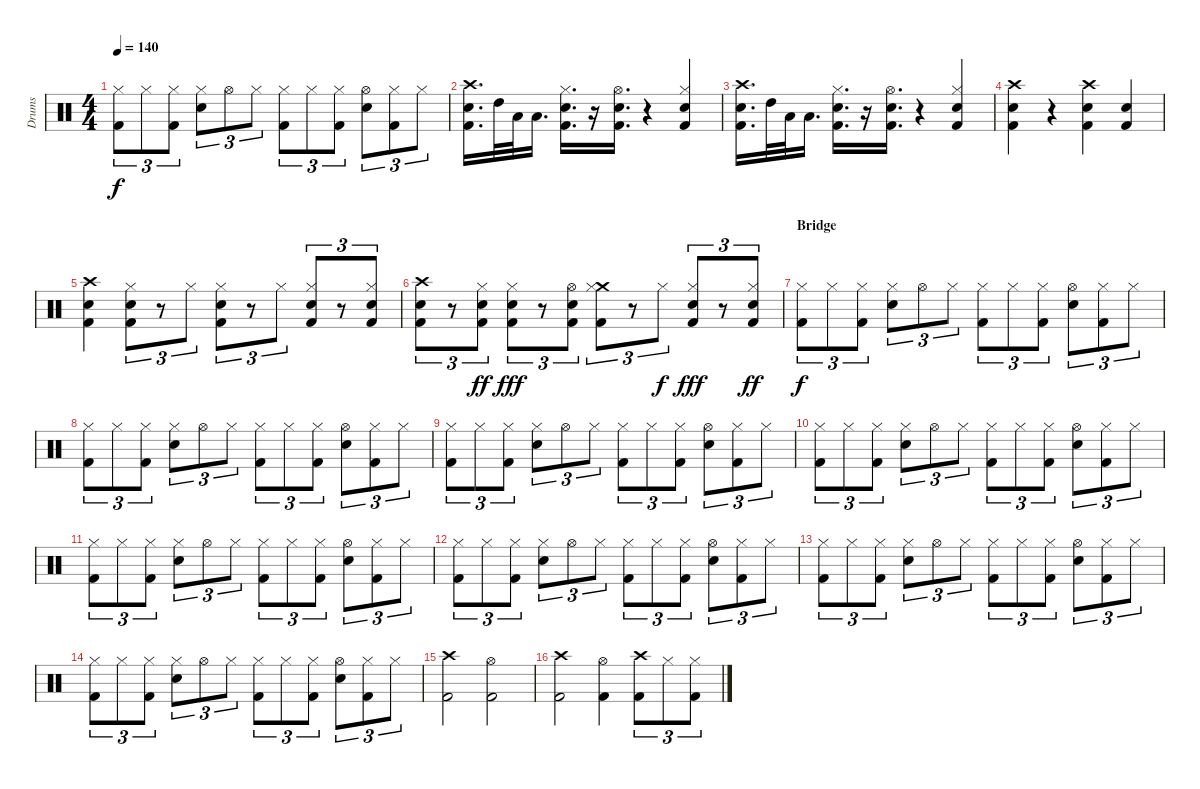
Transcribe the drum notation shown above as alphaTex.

\track ("Drums" "Drums") {instrument percussion}
\staff {score}
\articulation defaults
\ts (4 4)
\tempo 140
\clef neutral
\ks c
("Kick (hit) 2" "Hi-Hat (closed)").8{tu (3 2) dy f} "Hi-Hat (closed)".8{tu (3 2)} ("Kick (hit) 2" "Hi-Hat (closed)").8{tu (3 2)} ("Snare (hit) 2" "Hi-Hat (closed)").8{tu (3 2)} "Hi-Hat (open)".8{tu (3 2)} "Hi-Hat (closed)".8{tu (3 2)} ("Kick (hit) 2" "Hi-Hat (closed)").8{tu (3 2)} "Hi-Hat (closed)".8{tu (3 2)} ("Kick (hit) 2" "Hi-Hat (closed)").8{tu (3 2)} ("Snare (hit) 2" "Hi-Hat (open)").8{tu (3 2)} ("Kick (hit) 2" "Hi-Hat (closed)").8{tu (3 2)} "Hi-Hat (closed)".8{tu (3 2)} |
("Snare (hit) 2" "Crash high (hit)" "Kick (hit) 2").16{d} "High Tom (hit)".32 "Low Tom (hit)".32 "Low Floor Tom (hit)".16{d} ("Kick (hit) 2" "Snare (hit) 2" "Hi-Hat (closed)").16{d} r.16 ("Snare (hit) 2" "Hi-Hat (open)" "Kick (hit) 2").16{d} r.4 ("Kick (hit) 2" "Snare (hit) 2" "Hi-Hat (closed)").4 |
("Snare (hit) 2" "Crash high (hit)" "Kick (hit) 2").16{d} "High Tom (hit)".32 "Low Tom (hit)".32 "Low Floor Tom (hit)".16{d} ("Kick (hit) 2" "Snare (hit) 2" "Hi-Hat (closed)").16{d} r.16 ("Snare (hit) 2" "Hi-Hat (open)" "Kick (hit) 2").16{d} r.4 ("Kick (hit) 2" "Snare (hit) 2" "Hi-Hat (closed)").4 |
("Snare (hit) 2" "Kick (hit) 2" "Crash high (hit)").4 r.4 ("Snare (hit) 2" "Kick (hit) 2" "Crash high (hit)").4 ("Snare (hit) 2" "Kick (hit) 2").4 |
("Snare (hit) 2" "Kick (hit) 2" "Crash high (hit)").4 ("Snare (hit) 2" "Kick (hit) 2" "Hi-Hat (closed)").8{tu (3 2)} r.8{tu (3 2)} "Hi-Hat (closed)".8{tu (3 2)} ("Snare (hit) 2" "Hi-Hat (closed)" "Kick (hit) 2").8{tu (3 2)} r.8{tu (3 2)} "Hi-Hat (closed)".8{tu (3 2)} ("Snare (hit) 2" "Kick (hit) 2" "Hi-Hat (closed)").8{tu (3 2)} r.8{tu (3 2)} ("Snare (hit) 2" "Kick (hit) 2" "Hi-Hat (closed)").8{tu (3 2)} |
("Snare (hit) 2" "Kick (hit) 2" "Crash high (hit)").8{tu (3 2)} r.8{tu (3 2)} ("Snare (hit) 2" "Kick (hit) 2" "Hi-Hat (closed)").8{tu (3 2) dy ff} ("Snare (hit) 2" "Kick (hit) 2" "Hi-Hat (closed)").8{tu (3 2) dy fff} r.8{tu (3 2)} ("Snare (hit) 2" "Kick (hit) 2" "Hi-Hat (open)").8{tu (3 2)} ("Crash medium (hit)" "Kick (hit) 2" "Hi-Hat (closed)").8{tu (3 2)} r.8{tu (3 2)} "Hi-Hat (closed)".8{tu (3 2) dy f} ("Snare (hit) 2" "Kick (hit) 2" "Hi-Hat (closed)").8{tu (3 2) dy fff} r.8{tu (3 2)} ("Snare (hit) 2" "Kick (hit) 2" "Hi-Hat (closed)").8{tu (3 2) dy ff} |
\section ("" "Bridge")
("Kick (hit) 2" "Hi-Hat (closed)").8{tu (3 2) dy f} "Hi-Hat (closed)".8{tu (3 2)} ("Kick (hit) 2" "Hi-Hat (closed)").8{tu (3 2)} ("Snare (hit) 2" "Hi-Hat (closed)").8{tu (3 2)} "Hi-Hat (open)".8{tu (3 2)} "Hi-Hat (closed)".8{tu (3 2)} ("Kick (hit) 2" "Hi-Hat (closed)").8{tu (3 2)} "Hi-Hat (closed)".8{tu (3 2)} ("Kick (hit) 2" "Hi-Hat (closed)").8{tu (3 2)} ("Snare (hit) 2" "Hi-Hat (open)").8{tu (3 2)} ("Kick (hit) 2" "Hi-Hat (closed)").8{tu (3 2)} "Hi-Hat (closed)".8{tu (3 2)} |
("Kick (hit) 2" "Hi-Hat (closed)").8{tu (3 2)} "Hi-Hat (closed)".8{tu (3 2)} ("Kick (hit) 2" "Hi-Hat (closed)").8{tu (3 2)} ("Snare (hit) 2" "Hi-Hat (closed)").8{tu (3 2)} "Hi-Hat (open)".8{tu (3 2)} "Hi-Hat (closed)".8{tu (3 2)} ("Kick (hit) 2" "Hi-Hat (closed)").8{tu (3 2)} "Hi-Hat (closed)".8{tu (3 2)} ("Kick (hit) 2" "Hi-Hat (closed)").8{tu (3 2)} ("Snare (hit) 2" "Hi-Hat (open)").8{tu (3 2)} ("Kick (hit) 2" "Hi-Hat (closed)").8{tu (3 2)} "Hi-Hat (closed)".8{tu (3 2)} |
("Kick (hit) 2" "Hi-Hat (closed)").8{tu (3 2)} "Hi-Hat (closed)".8{tu (3 2)} ("Kick (hit) 2" "Hi-Hat (closed)").8{tu (3 2)} ("Snare (hit) 2" "Hi-Hat (closed)").8{tu (3 2)} "Hi-Hat (open)".8{tu (3 2)} "Hi-Hat (closed)".8{tu (3 2)} ("Kick (hit) 2" "Hi-Hat (closed)").8{tu (3 2)} "Hi-Hat (closed)".8{tu (3 2)} ("Kick (hit) 2" "Hi-Hat (closed)").8{tu (3 2)} ("Snare (hit) 2" "Hi-Hat (open)").8{tu (3 2)} ("Kick (hit) 2" "Hi-Hat (closed)").8{tu (3 2)} "Hi-Hat (closed)".8{tu (3 2)} |
("Kick (hit) 2" "Hi-Hat (closed)").8{tu (3 2)} "Hi-Hat (closed)".8{tu (3 2)} ("Kick (hit) 2" "Hi-Hat (closed)").8{tu (3 2)} ("Snare (hit) 2" "Hi-Hat (closed)").8{tu (3 2)} "Hi-Hat (open)".8{tu (3 2)} "Hi-Hat (closed)".8{tu (3 2)} ("Kick (hit) 2" "Hi-Hat (closed)").8{tu (3 2)} "Hi-Hat (closed)".8{tu (3 2)} ("Kick (hit) 2" "Hi-Hat (closed)").8{tu (3 2)} ("Snare (hit) 2" "Hi-Hat (open)").8{tu (3 2)} ("Kick (hit) 2" "Hi-Hat (closed)").8{tu (3 2)} "Hi-Hat (closed)".8{tu (3 2)} |
("Kick (hit) 2" "Hi-Hat (closed)").8{tu (3 2)} "Hi-Hat (closed)".8{tu (3 2)} ("Kick (hit) 2" "Hi-Hat (closed)").8{tu (3 2)} ("Snare (hit) 2" "Hi-Hat (closed)").8{tu (3 2)} "Hi-Hat (open)".8{tu (3 2)} "Hi-Hat (closed)".8{tu (3 2)} ("Kick (hit) 2" "Hi-Hat (closed)").8{tu (3 2)} "Hi-Hat (closed)".8{tu (3 2)} ("Kick (hit) 2" "Hi-Hat (closed)").8{tu (3 2)} ("Snare (hit) 2" "Hi-Hat (open)").8{tu (3 2)} ("Kick (hit) 2" "Hi-Hat (closed)").8{tu (3 2)} "Hi-Hat (closed)".8{tu (3 2)} |
("Kick (hit) 2" "Hi-Hat (closed)").8{tu (3 2)} "Hi-Hat (closed)".8{tu (3 2)} ("Kick (hit) 2" "Hi-Hat (closed)").8{tu (3 2)} ("Snare (hit) 2" "Hi-Hat (closed)").8{tu (3 2)} "Hi-Hat (open)".8{tu (3 2)} "Hi-Hat (closed)".8{tu (3 2)} ("Kick (hit) 2" "Hi-Hat (closed)").8{tu (3 2)} "Hi-Hat (closed)".8{tu (3 2)} ("Kick (hit) 2" "Hi-Hat (closed)").8{tu (3 2)} ("Snare (hit) 2" "Hi-Hat (open)").8{tu (3 2)} ("Kick (hit) 2" "Hi-Hat (closed)").8{tu (3 2)} "Hi-Hat (closed)".8{tu (3 2)} |
("Kick (hit) 2" "Hi-Hat (closed)").8{tu (3 2)} "Hi-Hat (closed)".8{tu (3 2)} ("Kick (hit) 2" "Hi-Hat (closed)").8{tu (3 2)} ("Snare (hit) 2" "Hi-Hat (closed)").8{tu (3 2)} "Hi-Hat (open)".8{tu (3 2)} "Hi-Hat (closed)".8{tu (3 2)} ("Kick (hit) 2" "Hi-Hat (closed)").8{tu (3 2)} "Hi-Hat (closed)".8{tu (3 2)} ("Kick (hit) 2" "Hi-Hat (closed)").8{tu (3 2)} ("Snare (hit) 2" "Hi-Hat (open)").8{tu (3 2)} ("Kick (hit) 2" "Hi-Hat (closed)").8{tu (3 2)} "Hi-Hat (closed)".8{tu (3 2)} |
("Kick (hit) 2" "Hi-Hat (closed)").8{tu (3 2)} "Hi-Hat (closed)".8{tu (3 2)} ("Kick (hit) 2" "Hi-Hat (closed)").8{tu (3 2)} ("Snare (hit) 2" "Hi-Hat (closed)").8{tu (3 2)} "Hi-Hat (open)".8{tu (3 2)} "Hi-Hat (closed)".8{tu (3 2)} ("Kick (hit) 2" "Hi-Hat (closed)").8{tu (3 2)} "Hi-Hat (closed)".8{tu (3 2)} ("Kick (hit) 2" "Hi-Hat (closed)").8{tu (3 2)} ("Snare (hit) 2" "Hi-Hat (open)").8{tu (3 2)} ("Kick (hit) 2" "Hi-Hat (closed)").8{tu (3 2)} "Hi-Hat (closed)".8{tu (3 2)} |
("Crash high (hit)" "Kick (hit) 2").2 ("Hi-Hat (open)" "Kick (hit) 2").2 |
("Crash high (hit)" "Kick (hit) 2").2 ("Hi-Hat (open)" "Kick (hit) 2").4 ("Kick (hit) 2" "Crash high (hit)").8{tu (3 2)} "Hi-Hat (closed)".8{tu (3 2)} ("Kick (hit) 2" "Hi-Hat (closed)").8{tu (3 2)}
